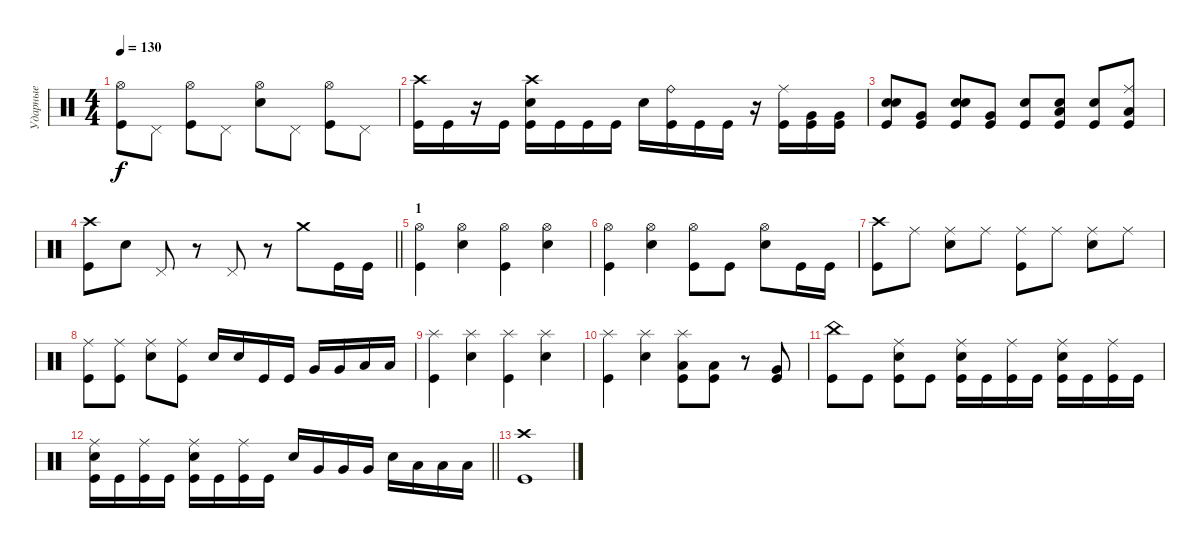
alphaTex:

\track ("Ударные" "Ударные") {instrument percussion}
\staff {score}
\articulation defaults
\ts (4 4)
\tempo 130
\clef neutral
\ks c
("Hi-Hat (open)" "Kick (hit)").8{dy f} "Pedal Hi-Hat (hit)".8 ("Hi-Hat (open)" "Kick (hit)").8 "Pedal Hi-Hat (hit)".8 ("Hi-Hat (open)" "Electric Snare (hit)").8 "Pedal Hi-Hat (hit)".8 ("Hi-Hat (open)" "Kick (hit)").8 "Pedal Hi-Hat (hit)".8 |
("Crash high (hit)" "Kick (hit)").16 "Kick (hit)".16 r.16 "Kick (hit)".16 ("Crash high (hit)" "Electric Snare (hit)" "Kick (hit)").16 "Kick (hit)".16 "Kick (hit)".16 "Kick (hit)".16 "Electric Snare (hit)".16 ("Ride (bell)" "Kick (hit)").16 "Kick (hit)".16 "Kick (hit)".16 r.16 ("Ride (middle)" "Kick (hit)").16 ("Very Low Tom (hit)" "Kick (hit)").16 ("Very Low Tom (hit)" "Kick (hit)").16 |
("Electric Snare (hit)" "Electric Snare (hit)" "Kick (hit)").8 ("Very Low Tom (hit)" "Kick (hit)").8 ("Electric Snare (hit)" "Electric Snare (hit)" "Kick (hit)").8 ("Very Low Tom (hit)" "Kick (hit)").8 ("Electric Snare (hit)" "Kick (hit)").8 ("Low Tom (hit)" "Electric Snare (hit)" "Kick (hit)").8 ("Electric Snare (hit)" "Kick (hit)").8 ("Ride (middle)" "Low Tom (hit)" "Kick (hit)").8 |
\barLineRight lightlight
("Crash high (hit)" "Kick (hit)").8 "Electric Snare (hit)".8 "Pedal Hi-Hat (hit)".8 r.8 "Pedal Hi-Hat (hit)".8 r.8 "Crash medium (hit)".8 "Kick (hit)".16 "Kick (hit)".16 |
\section ("" "1")
("Hi-Hat (open)" "Kick (hit)").4 ("Hi-Hat (open)" "Electric Snare (hit)").4 ("Hi-Hat (open)" "Kick (hit)").4 ("Hi-Hat (open)" "Electric Snare (hit)").4 |
("Hi-Hat (open)" "Kick (hit)").4 ("Hi-Hat (open)" "Electric Snare (hit)").4 ("Hi-Hat (open)" "Kick (hit)").8 "Kick (hit)".8 ("Hi-Hat (open)" "Electric Snare (hit)").8 "Kick (hit)".16 "Kick (hit)".16 |
("Crash high (hit)" "Kick (hit)").8 "Ride (middle)".8 ("Ride (middle)" "Electric Snare (hit)").8 "Ride (middle)".8 ("Ride (middle)" "Kick (hit)").8 "Ride (middle)".8 ("Ride (middle)" "Electric Snare (hit)").8 "Ride (middle)".8 |
("Ride (middle)" "Kick (hit)").8 ("Ride (middle)" "Kick (hit)").8 ("Ride (middle)" "Electric Snare (hit)").8 ("Ride (middle)" "Kick (hit)").8 "Electric Snare (hit)".16 "Electric Snare (hit)".16 "Kick (hit)".16 "Kick (hit)".16 "Very Low Tom (hit)".16 "Very Low Tom (hit)".16 "Low Floor Tom (hit)".16 "Low Floor Tom (hit)".16 |
("Splash (hit)" "Kick (hit)").4 ("Splash (hit)" "Electric Snare (hit)").4 ("Splash (hit)" "Kick (hit)").4 ("Splash (hit)" "Electric Snare (hit)").4 |
("Splash (hit)" "Kick (hit)").4 ("Splash (hit)" "Electric Snare (hit)").4 ("Splash (hit)" "Low Tom (hit)" "Kick (hit)").8 ("Low Tom (hit)" "Kick (hit)").8 r.8 ("Very Low Tom (hit)" "Kick (hit)").8 |
("China (hit)" "Kick (hit)").8 "Kick (hit)".8 ("Ride (middle)" "Electric Snare (hit)" "Kick (hit)").8 "Kick (hit)".8 ("Ride (middle)" "Electric Snare (hit)" "Kick (hit)").16 "Kick (hit)".16 ("Ride (middle)" "Kick (hit)").16 "Kick (hit)".16 ("Ride (middle)" "Electric Snare (hit)" "Kick (hit)").16 "Kick (hit)".16 ("Ride (middle)" "Kick (hit)").16 "Kick (hit)".16 |
\barLineRight lightlight
("Ride (middle)" "Electric Snare (hit)" "Kick (hit)").16 "Kick (hit)".16 ("Ride (middle)" "Kick (hit)").16 "Kick (hit)".16 ("Ride (middle)" "Electric Snare (hit)" "Kick (hit)").16 "Kick (hit)".16 ("Ride (middle)" "Kick (hit)").16 "Kick (hit)".16 "Electric Snare (hit)".16 "Very Low Tom (hit)".16 "Very Low Tom (hit)".16 "Very Low Tom (hit)".16 "Electric Snare (hit)".16 "Low Floor Tom (hit)".16 "Low Floor Tom (hit)".16 "Low Floor Tom (hit)".16 |
("Crash high (hit)" "Kick (hit)").1
